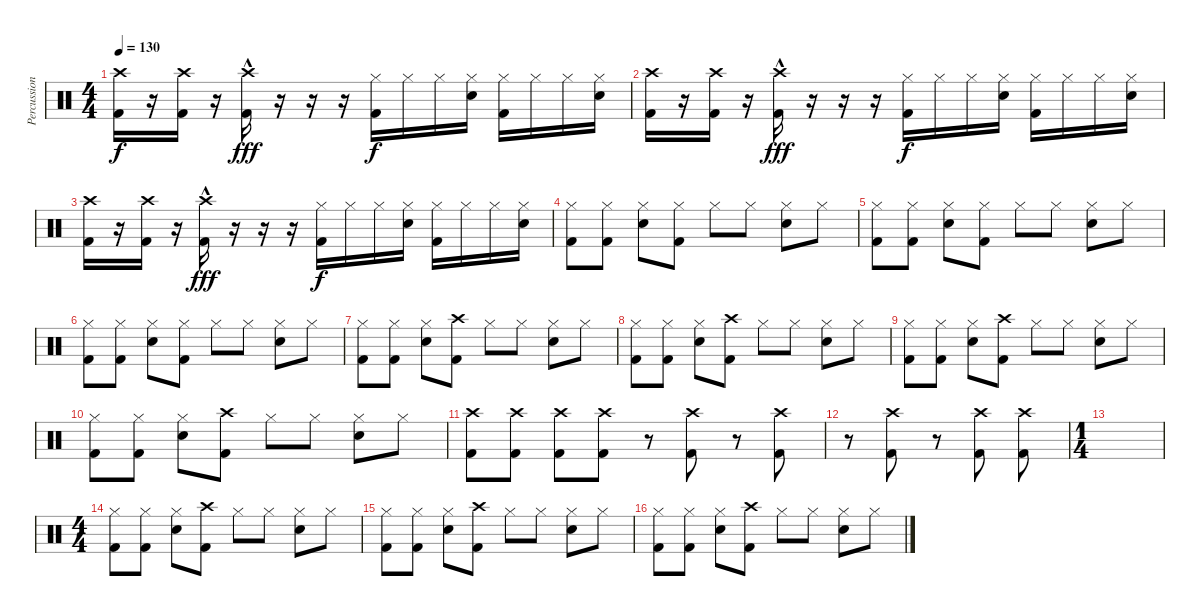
\track ("Percussion" "Percussion") {instrument percussion}
\staff {score}
\articulation defaults
\ts (4 4)
\tempo 130
\clef neutral
\ks c
("Crash high (hit)" "Kick (hit) 2").16{dy f} r.16 ("Kick (hit) 2" "Crash high (hit)").16 r.16 ("Crash high (hit)"{hac} "Kick (hit) 2"{hac}).16{dy fff} r.16 r.16 r.16 ("Hi-Hat (closed)" "Kick (hit) 2").16{dy f} "Hi-Hat (closed)".16 "Hi-Hat (closed)".16 ("Hi-Hat (closed)" "Snare (hit) 2").16 ("Hi-Hat (closed)" "Kick (hit) 2").16 "Hi-Hat (closed)".16 "Hi-Hat (closed)".16 ("Hi-Hat (closed)" "Snare (hit) 2").16 |
("Crash high (hit)" "Kick (hit) 2").16 r.16 ("Kick (hit) 2" "Crash high (hit)").16 r.16 ("Crash high (hit)"{hac} "Kick (hit) 2"{hac}).16{dy fff} r.16 r.16 r.16 ("Hi-Hat (closed)" "Kick (hit) 2").16{dy f} "Hi-Hat (closed)".16 "Hi-Hat (closed)".16 ("Hi-Hat (closed)" "Snare (hit) 2").16 ("Hi-Hat (closed)" "Kick (hit) 2").16 "Hi-Hat (closed)".16 "Hi-Hat (closed)".16 ("Hi-Hat (closed)" "Snare (hit) 2").16 |
("Crash high (hit)" "Kick (hit) 2").16 r.16 ("Kick (hit) 2" "Crash high (hit)").16 r.16 ("Crash high (hit)"{hac} "Kick (hit) 2"{hac}).16{dy fff} r.16 r.16 r.16 ("Hi-Hat (closed)" "Kick (hit) 2").16{dy f} "Hi-Hat (closed)".16 "Hi-Hat (closed)".16 ("Hi-Hat (closed)" "Snare (hit) 2").16 ("Hi-Hat (closed)" "Kick (hit) 2").16 "Hi-Hat (closed)".16 "Hi-Hat (closed)".16 ("Hi-Hat (closed)" "Snare (hit) 2").16 |
("Hi-Hat (closed)" "Kick (hit) 2").8 ("Hi-Hat (closed)" "Kick (hit) 2").8 ("Hi-Hat (closed)" "Snare (hit) 2").8 ("Hi-Hat (closed)" "Kick (hit) 2").8 "Hi-Hat (closed)".8 "Hi-Hat (closed)".8 ("Hi-Hat (closed)" "Snare (hit) 2").8 "Hi-Hat (closed)".8 |
("Hi-Hat (closed)" "Kick (hit) 2").8 ("Hi-Hat (closed)" "Kick (hit) 2").8 ("Hi-Hat (closed)" "Snare (hit) 2").8 ("Hi-Hat (closed)" "Kick (hit) 2").8 "Hi-Hat (closed)".8 "Hi-Hat (closed)".8 ("Hi-Hat (closed)" "Snare (hit) 2").8 "Hi-Hat (closed)".8 |
("Hi-Hat (closed)" "Kick (hit) 2").8 ("Hi-Hat (closed)" "Kick (hit) 2").8 ("Hi-Hat (closed)" "Snare (hit) 2").8 ("Hi-Hat (closed)" "Kick (hit) 2").8 "Hi-Hat (closed)".8 "Hi-Hat (closed)".8 ("Hi-Hat (closed)" "Snare (hit) 2").8 "Hi-Hat (closed)".8 |
("Hi-Hat (closed)" "Kick (hit) 2").8 ("Hi-Hat (closed)" "Kick (hit) 2").8 ("Hi-Hat (closed)" "Snare (hit) 2").8 ("Crash high (hit)" "Kick (hit) 2").8 "Hi-Hat (closed)".8 "Hi-Hat (closed)".8 ("Hi-Hat (closed)" "Snare (hit) 2").8 "Hi-Hat (closed)".8 |
("Hi-Hat (closed)" "Kick (hit) 2").8 ("Hi-Hat (closed)" "Kick (hit) 2").8 ("Hi-Hat (closed)" "Snare (hit) 2").8 ("Crash high (hit)" "Kick (hit) 2").8 "Hi-Hat (closed)".8 "Hi-Hat (closed)".8 ("Hi-Hat (closed)" "Snare (hit) 2").8 "Hi-Hat (closed)".8 |
("Hi-Hat (closed)" "Kick (hit) 2").8 ("Hi-Hat (closed)" "Kick (hit) 2").8 ("Hi-Hat (closed)" "Snare (hit) 2").8 ("Crash high (hit)" "Kick (hit) 2").8 "Hi-Hat (closed)".8 "Hi-Hat (closed)".8 ("Hi-Hat (closed)" "Snare (hit) 2").8 "Hi-Hat (closed)".8 |
("Hi-Hat (closed)" "Kick (hit) 2").8 ("Hi-Hat (closed)" "Kick (hit) 2").8 ("Hi-Hat (closed)" "Snare (hit) 2").8 ("Crash high (hit)" "Kick (hit) 2").8 "Hi-Hat (closed)".8 "Hi-Hat (closed)".8 ("Hi-Hat (closed)" "Snare (hit) 2").8 "Hi-Hat (closed)".8 |
("Crash high (hit)" "Kick (hit) 2").8 ("Crash high (hit)" "Kick (hit) 2").8 ("Crash high (hit)" "Kick (hit) 2").8 ("Crash high (hit)" "Kick (hit) 2").8 r.8 ("Crash high (hit)" "Kick (hit) 2").8 r.8 ("Crash high (hit)" "Kick (hit) 2").8 |
r.8 ("Crash high (hit)" "Kick (hit) 2").8 r.8 ("Crash high (hit)" "Kick (hit) 2").8 ("Crash high (hit)" "Kick (hit) 2").8 |
\ts (1 4)
|
\ts (4 4)
("Hi-Hat (closed)" "Kick (hit) 2").8 ("Hi-Hat (closed)" "Kick (hit) 2").8 ("Hi-Hat (closed)" "Snare (hit) 2").8 ("Crash high (hit)" "Kick (hit) 2").8 "Hi-Hat (closed)".8 "Hi-Hat (closed)".8 ("Hi-Hat (closed)" "Snare (hit) 2").8 "Hi-Hat (closed)".8 |
("Hi-Hat (closed)" "Kick (hit) 2").8 ("Hi-Hat (closed)" "Kick (hit) 2").8 ("Hi-Hat (closed)" "Snare (hit) 2").8 ("Crash high (hit)" "Kick (hit) 2").8 "Hi-Hat (closed)".8 "Hi-Hat (closed)".8 ("Hi-Hat (closed)" "Snare (hit) 2").8 "Hi-Hat (closed)".8 |
("Hi-Hat (closed)" "Kick (hit) 2").8 ("Hi-Hat (closed)" "Kick (hit) 2").8 ("Hi-Hat (closed)" "Snare (hit) 2").8 ("Crash high (hit)" "Kick (hit) 2").8 "Hi-Hat (closed)".8 "Hi-Hat (closed)".8 ("Hi-Hat (closed)" "Snare (hit) 2").8 "Hi-Hat (closed)".8
